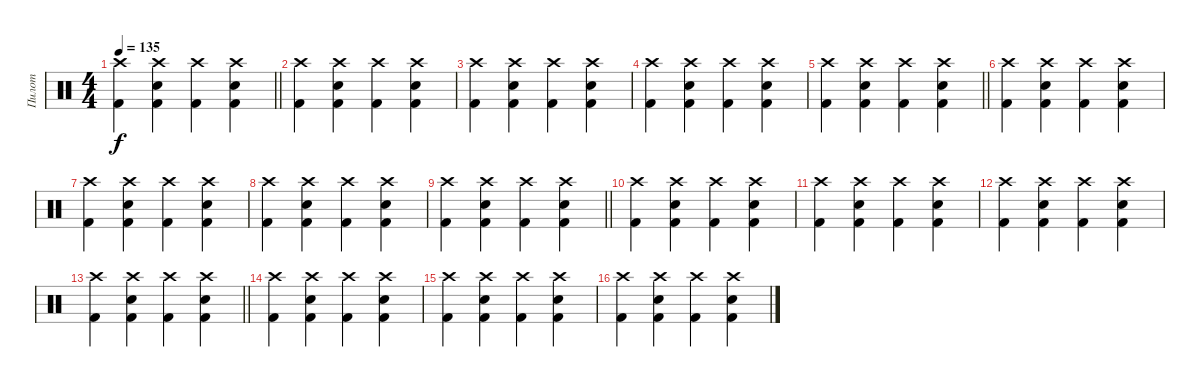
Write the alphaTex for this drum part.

\track ("Пилот" "Пилот") {instrument percussion}
\staff {score}
\articulation defaults
\ts (4 4)
\tempo 135
\clef neutral
\barLineRight lightlight
\ks c
("Crash high (hit)" "Kick (hit) 2").4{dy f} ("Crash high (hit)" "Kick (hit) 2" "Snare (hit) 2").4 ("Crash high (hit)" "Kick (hit) 2").4 ("Crash high (hit)" "Kick (hit) 2" "Snare (hit) 2").4 |
("Crash high (hit)" "Kick (hit) 2").4 ("Crash high (hit)" "Kick (hit) 2" "Snare (hit) 2").4 ("Crash high (hit)" "Kick (hit) 2").4 ("Crash high (hit)" "Kick (hit) 2" "Snare (hit) 2").4 |
("Crash high (hit)" "Kick (hit) 2").4 ("Crash high (hit)" "Kick (hit) 2" "Snare (hit) 2").4 ("Crash high (hit)" "Kick (hit) 2").4 ("Crash high (hit)" "Kick (hit) 2" "Snare (hit) 2").4 |
("Crash high (hit)" "Kick (hit) 2").4 ("Crash high (hit)" "Kick (hit) 2" "Snare (hit) 2").4 ("Crash high (hit)" "Kick (hit) 2").4 ("Crash high (hit)" "Kick (hit) 2" "Snare (hit) 2").4 |
\barLineRight lightlight
("Crash high (hit)" "Kick (hit) 2").4 ("Crash high (hit)" "Kick (hit) 2" "Snare (hit) 2").4 ("Crash high (hit)" "Kick (hit) 2").4 ("Crash high (hit)" "Kick (hit) 2" "Snare (hit) 2").4 |
("Crash high (hit)" "Kick (hit) 2").4 ("Crash high (hit)" "Kick (hit) 2" "Snare (hit) 2").4 ("Crash high (hit)" "Kick (hit) 2").4 ("Crash high (hit)" "Kick (hit) 2" "Snare (hit) 2").4 |
("Crash high (hit)" "Kick (hit) 2").4 ("Crash high (hit)" "Kick (hit) 2" "Snare (hit) 2").4 ("Crash high (hit)" "Kick (hit) 2").4 ("Crash high (hit)" "Kick (hit) 2" "Snare (hit) 2").4 |
("Crash high (hit)" "Kick (hit) 2").4 ("Crash high (hit)" "Kick (hit) 2" "Snare (hit) 2").4 ("Crash high (hit)" "Kick (hit) 2").4 ("Crash high (hit)" "Kick (hit) 2" "Snare (hit) 2").4 |
\barLineRight lightlight
("Crash high (hit)" "Kick (hit) 2").4 ("Crash high (hit)" "Kick (hit) 2" "Snare (hit) 2").4 ("Crash high (hit)" "Kick (hit) 2").4 ("Crash high (hit)" "Kick (hit) 2" "Snare (hit) 2").4 |
("Crash high (hit)" "Kick (hit) 2").4 ("Crash high (hit)" "Kick (hit) 2" "Snare (hit) 2").4 ("Crash high (hit)" "Kick (hit) 2").4 ("Crash high (hit)" "Kick (hit) 2" "Snare (hit) 2").4 |
("Crash high (hit)" "Kick (hit) 2").4 ("Crash high (hit)" "Kick (hit) 2" "Snare (hit) 2").4 ("Crash high (hit)" "Kick (hit) 2").4 ("Crash high (hit)" "Kick (hit) 2" "Snare (hit) 2").4 |
("Crash high (hit)" "Kick (hit) 2").4 ("Crash high (hit)" "Kick (hit) 2" "Snare (hit) 2").4 ("Crash high (hit)" "Kick (hit) 2").4 ("Crash high (hit)" "Kick (hit) 2" "Snare (hit) 2").4 |
\barLineRight lightlight
("Crash high (hit)" "Kick (hit) 2").4 ("Crash high (hit)" "Kick (hit) 2" "Snare (hit) 2").4 ("Crash high (hit)" "Kick (hit) 2").4 ("Crash high (hit)" "Kick (hit) 2" "Snare (hit) 2").4 |
("Crash high (hit)" "Kick (hit) 2").4 ("Crash high (hit)" "Kick (hit) 2" "Snare (hit) 2").4 ("Crash high (hit)" "Kick (hit) 2").4 ("Crash high (hit)" "Kick (hit) 2" "Snare (hit) 2").4 |
("Crash high (hit)" "Kick (hit) 2").4 ("Crash high (hit)" "Kick (hit) 2" "Snare (hit) 2").4 ("Crash high (hit)" "Kick (hit) 2").4 ("Crash high (hit)" "Kick (hit) 2" "Snare (hit) 2").4 |
("Crash high (hit)" "Kick (hit) 2").4 ("Crash high (hit)" "Kick (hit) 2" "Snare (hit) 2").4 ("Crash high (hit)" "Kick (hit) 2").4 ("Crash high (hit)" "Kick (hit) 2" "Snare (hit) 2").4
